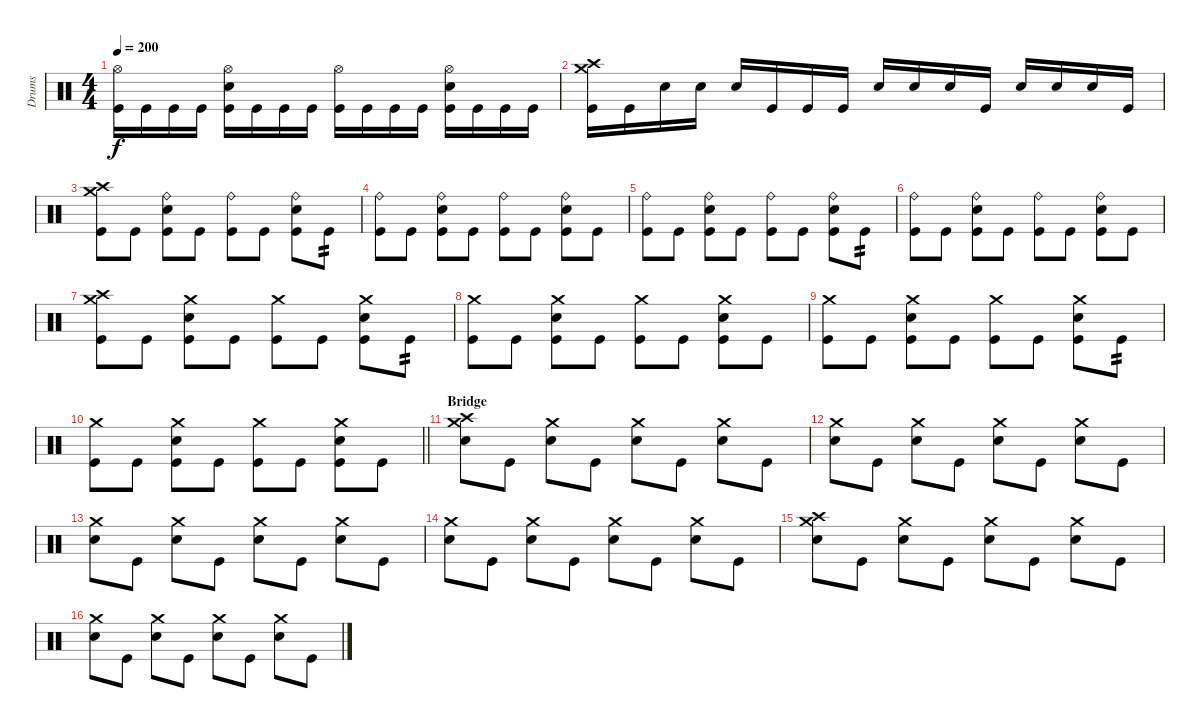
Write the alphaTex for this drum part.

\track ("Drums" "Drums") {instrument percussion}
\staff {score}
\articulation defaults
\ts (4 4)
\tempo 200
\clef neutral
\ks c
("Hi-Hat (open)" "Kick (hit)").16{dy f} "Kick (hit)".16 "Kick (hit)".16 "Kick (hit)".16 ("Hi-Hat (open)" "Electric Snare (hit)" "Kick (hit)").16 "Kick (hit)".16 "Kick (hit)".16 "Kick (hit)".16 ("Hi-Hat (open)" "Kick (hit)").16 "Kick (hit)".16 "Kick (hit)".16 "Kick (hit)".16 ("Hi-Hat (open)" "Electric Snare (hit)" "Kick (hit)").16 "Kick (hit)".16 "Kick (hit)".16 "Kick (hit)".16 |
("Crash medium (hit)" "Crash high (hit)" "Kick (hit)").16 "Kick (hit)".16 "Electric Snare (hit)".16 "Electric Snare (hit)".16 "Electric Snare (hit)".16 "Kick (hit)".16 "Kick (hit)".16 "Kick (hit)".16 "Electric Snare (hit)".16 "Electric Snare (hit)".16 "Electric Snare (hit)".16 "Kick (hit)".16 "Electric Snare (hit)".16 "Electric Snare (hit)".16 "Electric Snare (hit)".16 "Kick (hit)".16 |
("Crash medium (hit)" "Crash high (hit)" "Kick (hit)").8 "Kick (hit)".8 ("Ride (bell)" "Electric Snare (hit)" "Kick (hit)").8 "Kick (hit)".8 ("Ride (bell)" "Kick (hit)").8 "Kick (hit)".8 ("Ride (bell)" "Electric Snare (hit)" "Kick (hit)").8 "Kick (hit)".8{tp 2} |
("Ride (bell)" "Kick (hit)").8 "Kick (hit)".8 ("Ride (bell)" "Electric Snare (hit)" "Kick (hit)").8 "Kick (hit)".8 ("Ride (bell)" "Kick (hit)").8 "Kick (hit)".8 ("Ride (bell)" "Electric Snare (hit)" "Kick (hit)").8 "Kick (hit)".8 |
("Ride (bell)" "Kick (hit)").8 "Kick (hit)".8 ("Ride (bell)" "Electric Snare (hit)" "Kick (hit)").8 "Kick (hit)".8 ("Ride (bell)" "Kick (hit)").8 "Kick (hit)".8 ("Ride (bell)" "Electric Snare (hit)" "Kick (hit)").8 "Kick (hit)".8{tp 2} |
("Ride (bell)" "Kick (hit)").8 "Kick (hit)".8 ("Ride (bell)" "Electric Snare (hit)" "Kick (hit)").8 "Kick (hit)".8 ("Ride (bell)" "Kick (hit)").8 "Kick (hit)".8 ("Ride (bell)" "Electric Snare (hit)" "Kick (hit)").8 "Kick (hit)".8 |
("Crash medium (hit)" "Crash high (hit)" "Kick (hit)").8 "Kick (hit)".8 ("Crash medium (hit)" "Electric Snare (hit)" "Kick (hit)").8 "Kick (hit)".8 ("Crash medium (hit)" "Kick (hit)").8 "Kick (hit)".8 ("Crash medium (hit)" "Electric Snare (hit)" "Kick (hit)").8 "Kick (hit)".8{tp 2} |
("Crash medium (hit)" "Kick (hit)").8 "Kick (hit)".8 ("Crash medium (hit)" "Electric Snare (hit)" "Kick (hit)").8 "Kick (hit)".8 ("Crash medium (hit)" "Kick (hit)").8 "Kick (hit)".8 ("Crash medium (hit)" "Electric Snare (hit)" "Kick (hit)").8 "Kick (hit)".8 |
("Crash medium (hit)" "Kick (hit)").8 "Kick (hit)".8 ("Crash medium (hit)" "Electric Snare (hit)" "Kick (hit)").8 "Kick (hit)".8 ("Crash medium (hit)" "Kick (hit)").8 "Kick (hit)".8 ("Crash medium (hit)" "Electric Snare (hit)" "Kick (hit)").8 "Kick (hit)".8{tp 2} |
\barLineRight lightlight
("Crash medium (hit)" "Kick (hit)").8 "Kick (hit)".8 ("Crash medium (hit)" "Electric Snare (hit)" "Kick (hit)").8 "Kick (hit)".8 ("Crash medium (hit)" "Kick (hit)").8 "Kick (hit)".8 ("Crash medium (hit)" "Electric Snare (hit)" "Kick (hit)").8 "Kick (hit)".8 |
\section ("" "Bridge")
("Crash medium (hit)" "Crash high (hit)" "Electric Snare (hit)").8 "Kick (hit)".8 ("Crash medium (hit)" "Electric Snare (hit)").8 "Kick (hit)".8 ("Crash medium (hit)" "Electric Snare (hit)").8 "Kick (hit)".8 ("Crash medium (hit)" "Electric Snare (hit)").8 "Kick (hit)".8 |
("Crash medium (hit)" "Electric Snare (hit)").8 "Kick (hit)".8 ("Crash medium (hit)" "Electric Snare (hit)").8 "Kick (hit)".8 ("Crash medium (hit)" "Electric Snare (hit)").8 "Kick (hit)".8 ("Crash medium (hit)" "Electric Snare (hit)").8 "Kick (hit)".8 |
("Crash medium (hit)" "Electric Snare (hit)").8 "Kick (hit)".8 ("Crash medium (hit)" "Electric Snare (hit)").8 "Kick (hit)".8 ("Crash medium (hit)" "Electric Snare (hit)").8 "Kick (hit)".8 ("Crash medium (hit)" "Electric Snare (hit)").8 "Kick (hit)".8 |
("Crash medium (hit)" "Electric Snare (hit)").8 "Kick (hit)".8 ("Crash medium (hit)" "Electric Snare (hit)").8 "Kick (hit)".8 ("Crash medium (hit)" "Electric Snare (hit)").8 "Kick (hit)".8 ("Crash medium (hit)" "Electric Snare (hit)").8 "Kick (hit)".8 |
("Crash medium (hit)" "Crash high (hit)" "Electric Snare (hit)").8 "Kick (hit)".8 ("Crash medium (hit)" "Electric Snare (hit)").8 "Kick (hit)".8 ("Crash medium (hit)" "Electric Snare (hit)").8 "Kick (hit)".8 ("Crash medium (hit)" "Electric Snare (hit)").8 "Kick (hit)".8 |
("Crash medium (hit)" "Electric Snare (hit)").8 "Kick (hit)".8 ("Crash medium (hit)" "Electric Snare (hit)").8 "Kick (hit)".8 ("Crash medium (hit)" "Electric Snare (hit)").8 "Kick (hit)".8 ("Crash medium (hit)" "Electric Snare (hit)").8 "Kick (hit)".8
